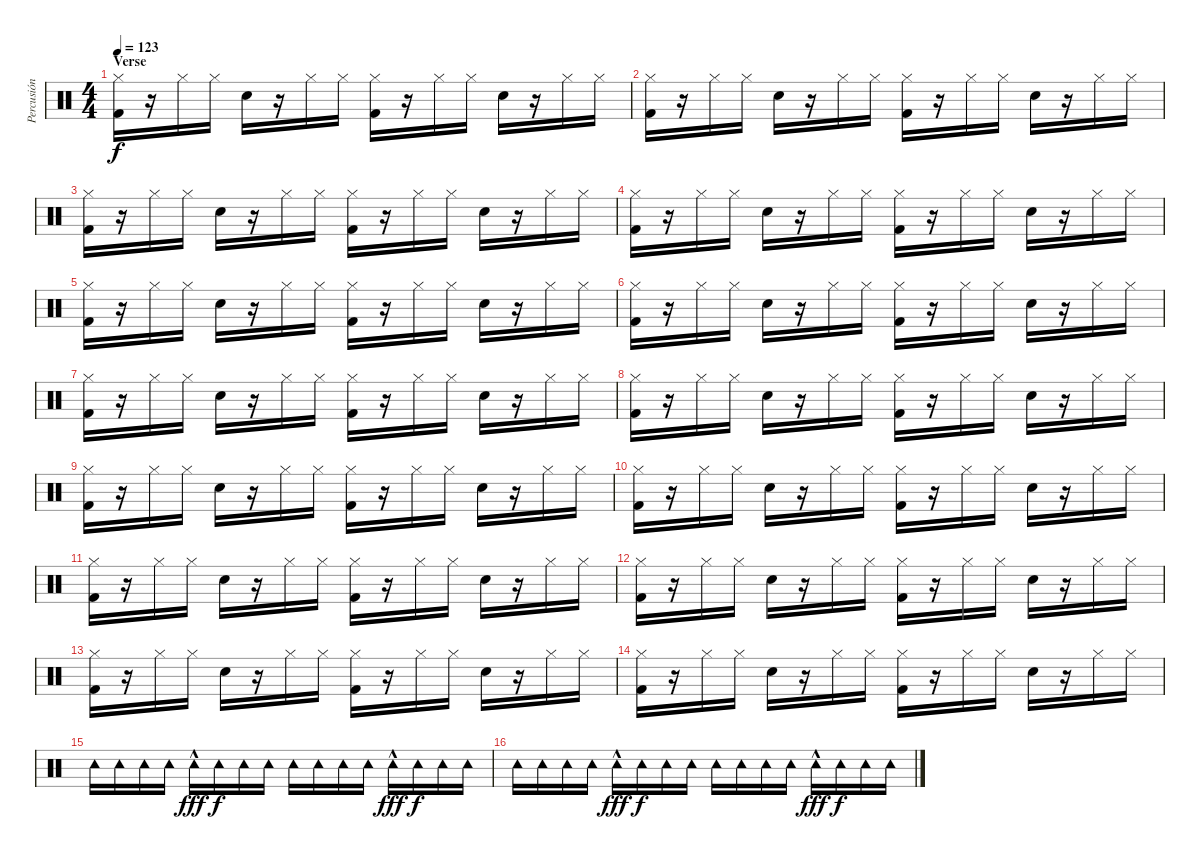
\track ("Percusión" "Percusión") {instrument percussion}
\staff {score}
\articulation defaults
\ts (4 4)
\section ("" "Verse")
\tempo 123
\clef neutral
\ks c
("Hi-Hat (closed)" "Kick (hit) 2").16{dy f} r.16 "Hi-Hat (closed)".16 "Hi-Hat (closed)".16 "Snare (hit) 2".16 r.16 "Hi-Hat (closed)".16 "Hi-Hat (closed)".16 ("Hi-Hat (closed)" "Kick (hit) 2").16 r.16 "Hi-Hat (closed)".16 "Hi-Hat (closed)".16 "Snare (hit) 2".16 r.16 "Hi-Hat (closed)".16 "Hi-Hat (closed)".16 |
("Hi-Hat (closed)" "Kick (hit) 2").16 r.16 "Hi-Hat (closed)".16 "Hi-Hat (closed)".16 "Snare (hit) 2".16 r.16 "Hi-Hat (closed)".16 "Hi-Hat (closed)".16 ("Hi-Hat (closed)" "Kick (hit) 2").16 r.16 "Hi-Hat (closed)".16 "Hi-Hat (closed)".16 "Snare (hit) 2".16 r.16 "Hi-Hat (closed)".16 "Hi-Hat (closed)".16 |
("Hi-Hat (closed)" "Kick (hit) 2").16 r.16 "Hi-Hat (closed)".16 "Hi-Hat (closed)".16 "Snare (hit) 2".16 r.16 "Hi-Hat (closed)".16 "Hi-Hat (closed)".16 ("Hi-Hat (closed)" "Kick (hit) 2").16 r.16 "Hi-Hat (closed)".16 "Hi-Hat (closed)".16 "Snare (hit) 2".16 r.16 "Hi-Hat (closed)".16 "Hi-Hat (closed)".16 |
("Hi-Hat (closed)" "Kick (hit) 2").16 r.16 "Hi-Hat (closed)".16 "Hi-Hat (closed)".16 "Snare (hit) 2".16 r.16 "Hi-Hat (closed)".16 "Hi-Hat (closed)".16 ("Hi-Hat (closed)" "Kick (hit) 2").16 r.16 "Hi-Hat (closed)".16 "Hi-Hat (closed)".16 "Snare (hit) 2".16 r.16 "Hi-Hat (closed)".16 "Hi-Hat (closed)".16 |
("Hi-Hat (closed)" "Kick (hit) 2").16 r.16 "Hi-Hat (closed)".16 "Hi-Hat (closed)".16 "Snare (hit) 2".16 r.16 "Hi-Hat (closed)".16 "Hi-Hat (closed)".16 ("Hi-Hat (closed)" "Kick (hit) 2").16 r.16 "Hi-Hat (closed)".16 "Hi-Hat (closed)".16 "Snare (hit) 2".16 r.16 "Hi-Hat (closed)".16 "Hi-Hat (closed)".16 |
("Hi-Hat (closed)" "Kick (hit) 2").16 r.16 "Hi-Hat (closed)".16 "Hi-Hat (closed)".16 "Snare (hit) 2".16 r.16 "Hi-Hat (closed)".16 "Hi-Hat (closed)".16 ("Hi-Hat (closed)" "Kick (hit) 2").16 r.16 "Hi-Hat (closed)".16 "Hi-Hat (closed)".16 "Snare (hit) 2".16 r.16 "Hi-Hat (closed)".16 "Hi-Hat (closed)".16 |
("Hi-Hat (closed)" "Kick (hit) 2").16 r.16 "Hi-Hat (closed)".16 "Hi-Hat (closed)".16 "Snare (hit) 2".16 r.16 "Hi-Hat (closed)".16 "Hi-Hat (closed)".16 ("Hi-Hat (closed)" "Kick (hit) 2").16 r.16 "Hi-Hat (closed)".16 "Hi-Hat (closed)".16 "Snare (hit) 2".16 r.16 "Hi-Hat (closed)".16 "Hi-Hat (closed)".16 |
("Hi-Hat (closed)" "Kick (hit) 2").16 r.16 "Hi-Hat (closed)".16 "Hi-Hat (closed)".16 "Snare (hit) 2".16 r.16 "Hi-Hat (closed)".16 "Hi-Hat (closed)".16 ("Hi-Hat (closed)" "Kick (hit) 2").16 r.16 "Hi-Hat (closed)".16 "Hi-Hat (closed)".16 "Snare (hit) 2".16 r.16 "Hi-Hat (closed)".16 "Hi-Hat (closed)".16 |
("Hi-Hat (closed)" "Kick (hit) 2").16 r.16 "Hi-Hat (closed)".16 "Hi-Hat (closed)".16 "Snare (hit) 2".16 r.16 "Hi-Hat (closed)".16 "Hi-Hat (closed)".16 ("Hi-Hat (closed)" "Kick (hit) 2").16 r.16 "Hi-Hat (closed)".16 "Hi-Hat (closed)".16 "Snare (hit) 2".16 r.16 "Hi-Hat (closed)".16 "Hi-Hat (closed)".16 |
("Hi-Hat (closed)" "Kick (hit) 2").16 r.16 "Hi-Hat (closed)".16 "Hi-Hat (closed)".16 "Snare (hit) 2".16 r.16 "Hi-Hat (closed)".16 "Hi-Hat (closed)".16 ("Hi-Hat (closed)" "Kick (hit) 2").16 r.16 "Hi-Hat (closed)".16 "Hi-Hat (closed)".16 "Snare (hit) 2".16 r.16 "Hi-Hat (closed)".16 "Hi-Hat (closed)".16 |
("Hi-Hat (closed)" "Kick (hit) 2").16 r.16 "Hi-Hat (closed)".16 "Hi-Hat (closed)".16 "Snare (hit) 2".16 r.16 "Hi-Hat (closed)".16 "Hi-Hat (closed)".16 ("Hi-Hat (closed)" "Kick (hit) 2").16 r.16 "Hi-Hat (closed)".16 "Hi-Hat (closed)".16 "Snare (hit) 2".16 r.16 "Hi-Hat (closed)".16 "Hi-Hat (closed)".16 |
("Hi-Hat (closed)" "Kick (hit) 2").16 r.16 "Hi-Hat (closed)".16 "Hi-Hat (closed)".16 "Snare (hit) 2".16 r.16 "Hi-Hat (closed)".16 "Hi-Hat (closed)".16 ("Hi-Hat (closed)" "Kick (hit) 2").16 r.16 "Hi-Hat (closed)".16 "Hi-Hat (closed)".16 "Snare (hit) 2".16 r.16 "Hi-Hat (closed)".16 "Hi-Hat (closed)".16 |
("Hi-Hat (closed)" "Kick (hit) 2").16 r.16 "Hi-Hat (closed)".16 "Hi-Hat (closed)".16 "Snare (hit) 2".16 r.16 "Hi-Hat (closed)".16 "Hi-Hat (closed)".16 ("Hi-Hat (closed)" "Kick (hit) 2").16 r.16 "Hi-Hat (closed)".16 "Hi-Hat (closed)".16 "Snare (hit) 2".16 r.16 "Hi-Hat (closed)".16 "Hi-Hat (closed)".16 |
("Hi-Hat (closed)" "Kick (hit) 2").16 r.16 "Hi-Hat (closed)".16 "Hi-Hat (closed)".16 "Snare (hit) 2".16 r.16 "Hi-Hat (closed)".16 "Hi-Hat (closed)".16 ("Hi-Hat (closed)" "Kick (hit) 2").16 r.16 "Hi-Hat (closed)".16 "Hi-Hat (closed)".16 "Snare (hit) 2".16 r.16 "Hi-Hat (closed)".16 "Hi-Hat (closed)".16 |
"Tambourine (hit)".16 "Tambourine (hit)".16 "Tambourine (hit)".16 "Tambourine (hit)".16 "Tambourine (hit)"{hac}.16{dy fff} "Tambourine (hit)".16{dy f} "Tambourine (hit)".16 "Tambourine (hit)".16 "Tambourine (hit)".16 "Tambourine (hit)".16 "Tambourine (hit)".16 "Tambourine (hit)".16 "Tambourine (hit)"{hac}.16{dy fff} "Tambourine (hit)".16{dy f} "Tambourine (hit)".16 "Tambourine (hit)".16 |
"Tambourine (hit)".16 "Tambourine (hit)".16 "Tambourine (hit)".16 "Tambourine (hit)".16 "Tambourine (hit)"{hac}.16{dy fff} "Tambourine (hit)".16{dy f} "Tambourine (hit)".16 "Tambourine (hit)".16 "Tambourine (hit)".16 "Tambourine (hit)".16 "Tambourine (hit)".16 "Tambourine (hit)".16 "Tambourine (hit)"{hac}.16{dy fff} "Tambourine (hit)".16{dy f} "Tambourine (hit)".16 "Tambourine (hit)".16
